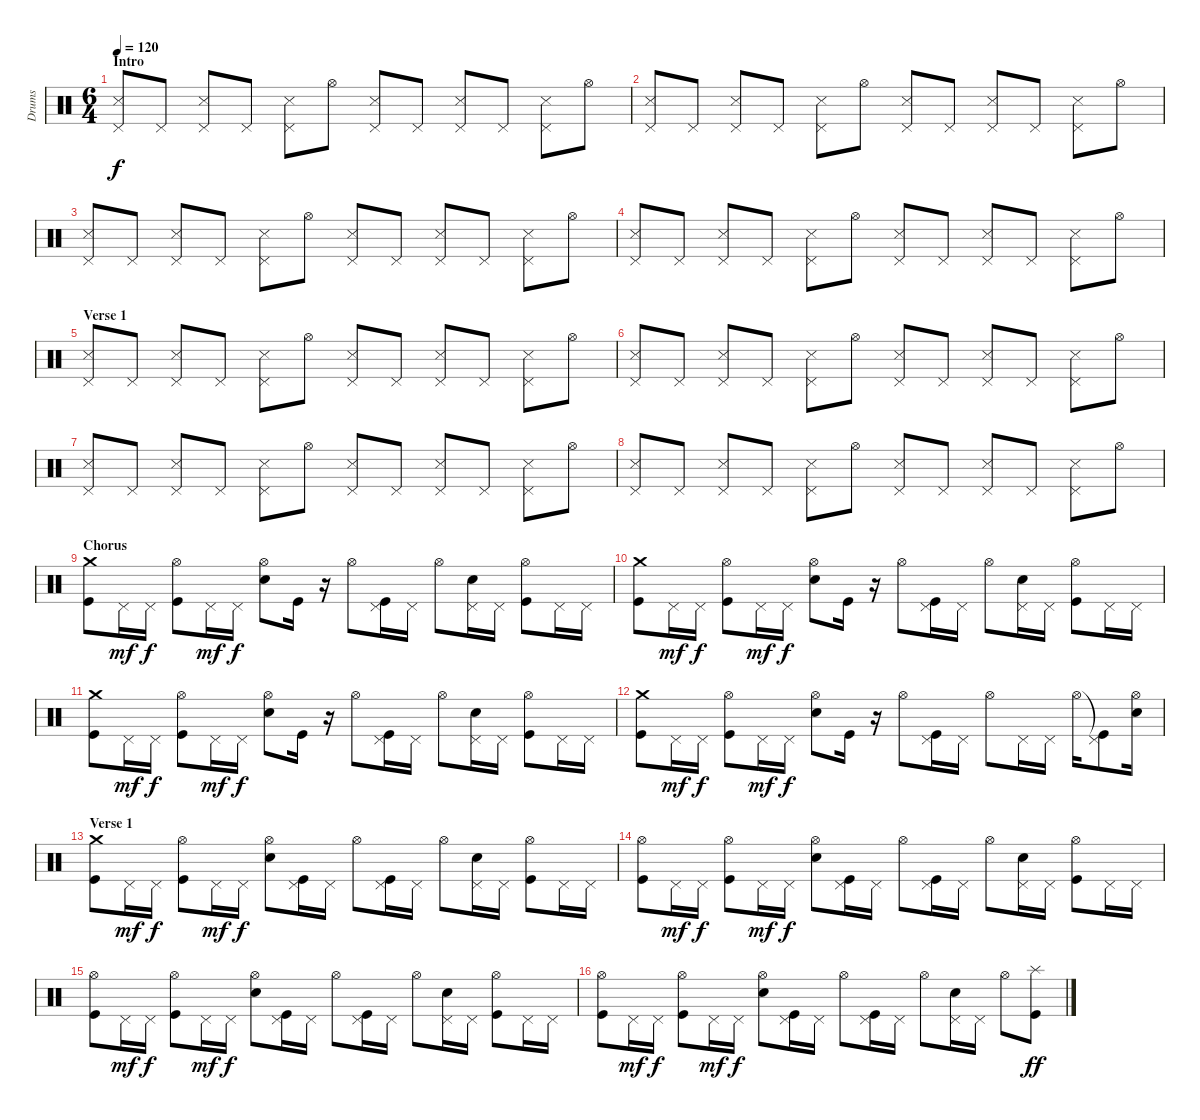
\track ("Drums" "Drums") {instrument percussion}
\staff {score}
\articulation defaults
\ts (6 4)
\section ("" "Intro")
\tempo 120
\clef neutral
\ks c
("Pedal Hi-Hat (hit)" "Snare (side stick) 3").8{dy f} "Pedal Hi-Hat (hit)".8 ("Pedal Hi-Hat (hit)" "Snare (side stick) 3").8 "Pedal Hi-Hat (hit)".8 ("Pedal Hi-Hat (hit)" "Snare (side stick) 3").8 "Hi-Hat (open)".8 ("Pedal Hi-Hat (hit)" "Snare (side stick) 3").8 "Pedal Hi-Hat (hit)".8 ("Pedal Hi-Hat (hit)" "Snare (side stick) 3").8 "Pedal Hi-Hat (hit)".8 ("Pedal Hi-Hat (hit)" "Snare (side stick) 3").8 "Hi-Hat (open)".8 |
("Pedal Hi-Hat (hit)" "Snare (side stick) 3").8 "Pedal Hi-Hat (hit)".8 ("Pedal Hi-Hat (hit)" "Snare (side stick) 3").8 "Pedal Hi-Hat (hit)".8 ("Pedal Hi-Hat (hit)" "Snare (side stick) 3").8 "Hi-Hat (open)".8 ("Pedal Hi-Hat (hit)" "Snare (side stick) 3").8 "Pedal Hi-Hat (hit)".8 ("Pedal Hi-Hat (hit)" "Snare (side stick) 3").8 "Pedal Hi-Hat (hit)".8 ("Pedal Hi-Hat (hit)" "Snare (side stick) 3").8 "Hi-Hat (open)".8 |
("Pedal Hi-Hat (hit)" "Snare (side stick) 3").8 "Pedal Hi-Hat (hit)".8 ("Pedal Hi-Hat (hit)" "Snare (side stick) 3").8 "Pedal Hi-Hat (hit)".8 ("Pedal Hi-Hat (hit)" "Snare (side stick) 3").8 "Hi-Hat (open)".8 ("Pedal Hi-Hat (hit)" "Snare (side stick) 3").8 "Pedal Hi-Hat (hit)".8 ("Pedal Hi-Hat (hit)" "Snare (side stick) 3").8 "Pedal Hi-Hat (hit)".8 ("Pedal Hi-Hat (hit)" "Snare (side stick) 3").8 "Hi-Hat (open)".8 |
("Pedal Hi-Hat (hit)" "Snare (side stick) 3").8 "Pedal Hi-Hat (hit)".8 ("Pedal Hi-Hat (hit)" "Snare (side stick) 3").8 "Pedal Hi-Hat (hit)".8 ("Pedal Hi-Hat (hit)" "Snare (side stick) 3").8 "Hi-Hat (open)".8 ("Pedal Hi-Hat (hit)" "Snare (side stick) 3").8 "Pedal Hi-Hat (hit)".8 ("Pedal Hi-Hat (hit)" "Snare (side stick) 3").8 "Pedal Hi-Hat (hit)".8 ("Pedal Hi-Hat (hit)" "Snare (side stick) 3").8 "Hi-Hat (open)".8 |
\section ("" "Verse 1")
("Pedal Hi-Hat (hit)" "Snare (side stick) 3").8 "Pedal Hi-Hat (hit)".8 ("Pedal Hi-Hat (hit)" "Snare (side stick) 3").8 "Pedal Hi-Hat (hit)".8 ("Pedal Hi-Hat (hit)" "Snare (side stick) 3").8 "Hi-Hat (open)".8 ("Pedal Hi-Hat (hit)" "Snare (side stick) 3").8 "Pedal Hi-Hat (hit)".8 ("Pedal Hi-Hat (hit)" "Snare (side stick) 3").8 "Pedal Hi-Hat (hit)".8 ("Pedal Hi-Hat (hit)" "Snare (side stick) 3").8 "Hi-Hat (open)".8 |
("Pedal Hi-Hat (hit)" "Snare (side stick) 3").8 "Pedal Hi-Hat (hit)".8 ("Pedal Hi-Hat (hit)" "Snare (side stick) 3").8 "Pedal Hi-Hat (hit)".8 ("Pedal Hi-Hat (hit)" "Snare (side stick) 3").8 "Hi-Hat (open)".8 ("Pedal Hi-Hat (hit)" "Snare (side stick) 3").8 "Pedal Hi-Hat (hit)".8 ("Pedal Hi-Hat (hit)" "Snare (side stick) 3").8 "Pedal Hi-Hat (hit)".8 ("Pedal Hi-Hat (hit)" "Snare (side stick) 3").8 "Hi-Hat (open)".8 |
("Pedal Hi-Hat (hit)" "Snare (side stick) 3").8 "Pedal Hi-Hat (hit)".8 ("Pedal Hi-Hat (hit)" "Snare (side stick) 3").8 "Pedal Hi-Hat (hit)".8 ("Pedal Hi-Hat (hit)" "Snare (side stick) 3").8 "Hi-Hat (open)".8 ("Pedal Hi-Hat (hit)" "Snare (side stick) 3").8 "Pedal Hi-Hat (hit)".8 ("Pedal Hi-Hat (hit)" "Snare (side stick) 3").8 "Pedal Hi-Hat (hit)".8 ("Pedal Hi-Hat (hit)" "Snare (side stick) 3").8 "Hi-Hat (open)".8 |
("Pedal Hi-Hat (hit)" "Snare (side stick) 3").8 "Pedal Hi-Hat (hit)".8 ("Pedal Hi-Hat (hit)" "Snare (side stick) 3").8 "Pedal Hi-Hat (hit)".8 ("Pedal Hi-Hat (hit)" "Snare (side stick) 3").8 "Hi-Hat (open)".8 ("Pedal Hi-Hat (hit)" "Snare (side stick) 3").8 "Pedal Hi-Hat (hit)".8 ("Pedal Hi-Hat (hit)" "Snare (side stick) 3").8 "Pedal Hi-Hat (hit)".8 ("Pedal Hi-Hat (hit)" "Snare (side stick) 3").8 "Hi-Hat (open)".8 |
\section ("" "Chorus")
("Crash medium (hit)" "Kick (hit)").8 "Pedal Hi-Hat (hit)".16{dy mf} "Pedal Hi-Hat (hit)".16{dy f} ("Hi-Hat (open)" "Kick (hit)").8 "Pedal Hi-Hat (hit)".16{dy mf} "Pedal Hi-Hat (hit)".16{dy f} ("Hi-Hat (open)" "Electric Snare (hit)").8 "Kick (hit)".16 r.16 "Hi-Hat (open)".8 ("Pedal Hi-Hat (hit)" "Kick (hit)").16 "Pedal Hi-Hat (hit)".16 "Hi-Hat (open)".8 ("Pedal Hi-Hat (hit)" "Electric Snare (hit)").16 "Pedal Hi-Hat (hit)".16 ("Hi-Hat (open)" "Kick (hit)").8 "Pedal Hi-Hat (hit)".16 "Pedal Hi-Hat (hit)".16 |
("Crash medium (hit)" "Kick (hit)").8 "Pedal Hi-Hat (hit)".16{dy mf} "Pedal Hi-Hat (hit)".16{dy f} ("Hi-Hat (open)" "Kick (hit)").8 "Pedal Hi-Hat (hit)".16{dy mf} "Pedal Hi-Hat (hit)".16{dy f} ("Hi-Hat (open)" "Electric Snare (hit)").8 "Kick (hit)".16 r.16 "Hi-Hat (open)".8 ("Pedal Hi-Hat (hit)" "Kick (hit)").16 "Pedal Hi-Hat (hit)".16 "Hi-Hat (open)".8 ("Pedal Hi-Hat (hit)" "Electric Snare (hit)").16 "Pedal Hi-Hat (hit)".16 ("Hi-Hat (open)" "Kick (hit)").8 "Pedal Hi-Hat (hit)".16 "Pedal Hi-Hat (hit)".16 |
("Crash medium (hit)" "Kick (hit)").8 "Pedal Hi-Hat (hit)".16{dy mf} "Pedal Hi-Hat (hit)".16{dy f} ("Hi-Hat (open)" "Kick (hit)").8 "Pedal Hi-Hat (hit)".16{dy mf} "Pedal Hi-Hat (hit)".16{dy f} ("Hi-Hat (open)" "Electric Snare (hit)").8 "Kick (hit)".16 r.16 "Hi-Hat (open)".8 ("Pedal Hi-Hat (hit)" "Kick (hit)").16 "Pedal Hi-Hat (hit)".16 "Hi-Hat (open)".8 ("Pedal Hi-Hat (hit)" "Electric Snare (hit)").16 "Pedal Hi-Hat (hit)".16 ("Hi-Hat (open)" "Kick (hit)").8 "Pedal Hi-Hat (hit)".16 "Pedal Hi-Hat (hit)".16 |
("Crash medium (hit)" "Kick (hit)").8 "Pedal Hi-Hat (hit)".16{dy mf} "Pedal Hi-Hat (hit)".16{dy f} ("Hi-Hat (open)" "Kick (hit)").8 "Pedal Hi-Hat (hit)".16{dy mf} "Pedal Hi-Hat (hit)".16{dy f} ("Hi-Hat (open)" "Electric Snare (hit)").8 "Kick (hit)".16 r.16 "Hi-Hat (open)".8 ("Pedal Hi-Hat (hit)" "Kick (hit)").16 "Pedal Hi-Hat (hit)".16 "Hi-Hat (open)".8 "Pedal Hi-Hat (hit)".16 "Pedal Hi-Hat (hit)".16 "Hi-Hat (open)".16 ("Pedal Hi-Hat (hit)"{t} "Kick (hit)").8 ("Hi-Hat (open)" "Electric Snare (hit)").16 |
\section ("" "Verse 1")
("Crash medium (hit)" "Kick (hit)").8 "Pedal Hi-Hat (hit)".16{dy mf} "Pedal Hi-Hat (hit)".16{dy f} ("Hi-Hat (open)" "Kick (hit)").8 "Pedal Hi-Hat (hit)".16{dy mf} "Pedal Hi-Hat (hit)".16{dy f} ("Hi-Hat (open)" "Electric Snare (hit)").8 ("Pedal Hi-Hat (hit)" "Kick (hit)").16 "Pedal Hi-Hat (hit)".16 "Hi-Hat (open)".8 ("Pedal Hi-Hat (hit)" "Kick (hit)").16 "Pedal Hi-Hat (hit)".16 "Hi-Hat (open)".8 ("Pedal Hi-Hat (hit)" "Electric Snare (hit)").16 "Pedal Hi-Hat (hit)".16 ("Hi-Hat (open)" "Kick (hit)").8 "Pedal Hi-Hat (hit)".16 "Pedal Hi-Hat (hit)".16 |
("Hi-Hat (open)" "Kick (hit)").8 "Pedal Hi-Hat (hit)".16{dy mf} "Pedal Hi-Hat (hit)".16{dy f} ("Hi-Hat (open)" "Kick (hit)").8 "Pedal Hi-Hat (hit)".16{dy mf} "Pedal Hi-Hat (hit)".16{dy f} ("Hi-Hat (open)" "Electric Snare (hit)").8 ("Pedal Hi-Hat (hit)" "Kick (hit)").16 "Pedal Hi-Hat (hit)".16 "Hi-Hat (open)".8 ("Pedal Hi-Hat (hit)" "Kick (hit)").16 "Pedal Hi-Hat (hit)".16 "Hi-Hat (open)".8 ("Pedal Hi-Hat (hit)" "Electric Snare (hit)").16 "Pedal Hi-Hat (hit)".16 ("Hi-Hat (open)" "Kick (hit)").8 "Pedal Hi-Hat (hit)".16 "Pedal Hi-Hat (hit)".16 |
("Hi-Hat (open)" "Kick (hit)").8 "Pedal Hi-Hat (hit)".16{dy mf} "Pedal Hi-Hat (hit)".16{dy f} ("Hi-Hat (open)" "Kick (hit)").8 "Pedal Hi-Hat (hit)".16{dy mf} "Pedal Hi-Hat (hit)".16{dy f} ("Hi-Hat (open)" "Electric Snare (hit)").8 ("Pedal Hi-Hat (hit)" "Kick (hit)").16 "Pedal Hi-Hat (hit)".16 "Hi-Hat (open)".8 ("Pedal Hi-Hat (hit)" "Kick (hit)").16 "Pedal Hi-Hat (hit)".16 "Hi-Hat (open)".8 ("Pedal Hi-Hat (hit)" "Electric Snare (hit)").16 "Pedal Hi-Hat (hit)".16 ("Hi-Hat (open)" "Kick (hit)").8 "Pedal Hi-Hat (hit)".16 "Pedal Hi-Hat (hit)".16 |
("Hi-Hat (open)" "Kick (hit)").8 "Pedal Hi-Hat (hit)".16{dy mf} "Pedal Hi-Hat (hit)".16{dy f} ("Hi-Hat (open)" "Kick (hit)").8 "Pedal Hi-Hat (hit)".16{dy mf} "Pedal Hi-Hat (hit)".16{dy f} ("Hi-Hat (open)" "Electric Snare (hit)").8 ("Pedal Hi-Hat (hit)" "Kick (hit)").16 "Pedal Hi-Hat (hit)".16 "Hi-Hat (open)".8 ("Pedal Hi-Hat (hit)" "Kick (hit)").16 "Pedal Hi-Hat (hit)".16 "Hi-Hat (open)".8 ("Pedal Hi-Hat (hit)" "Electric Snare (hit)").16 "Pedal Hi-Hat (hit)".16 "Hi-Hat (open)".8 ("Splash (hit)" "Kick (hit)").8{dy ff}
